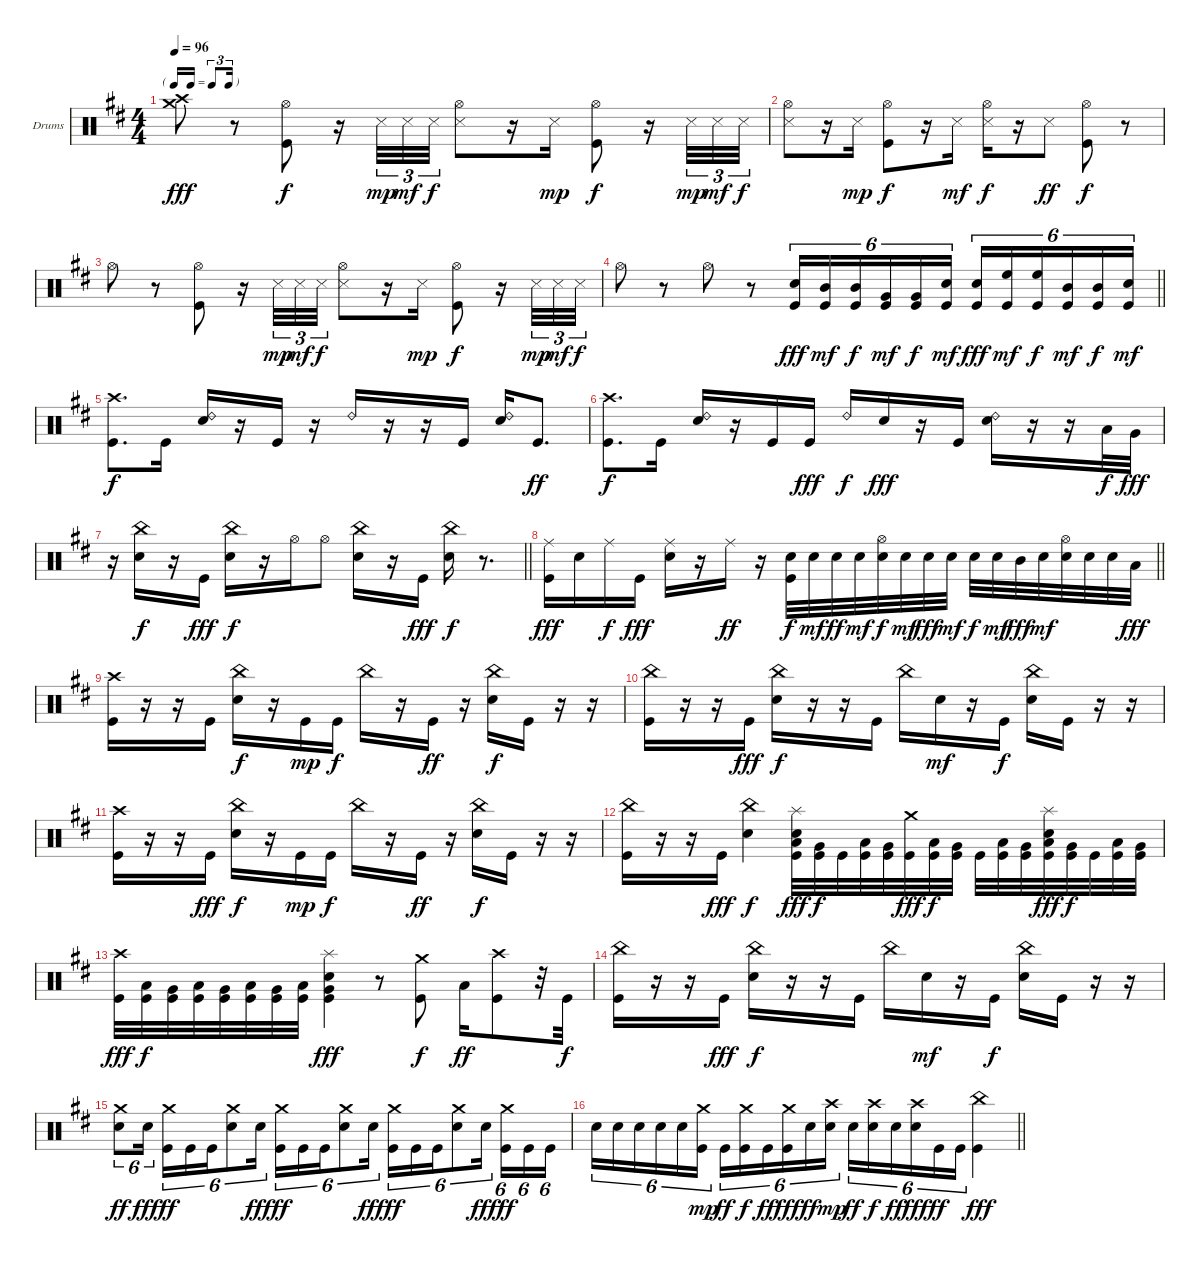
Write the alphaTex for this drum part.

\bracketExtendMode groupsimilarinstruments
\firstSystemTrackNameOrientation horizontal
\otherSystemsTrackNameOrientation horizontal
\track ("Drumkit" "Drums") {instrument percussion}
\staff {score}
\articulation defaults
\ts (4 4)
\tf triplet16th
\tempo 96
\clef neutral
\ks d
("Crash medium (hit)" "Crash high (hit)").8{dy fff} r.8 ("Hi-Hat (open)" "Kick (hit)").8{dy f} r.16 "Snare (side stick) 3".32{tu (3 2) dy mp} "Snare (side stick) 3".32{tu (3 2) dy mf} "Snare (side stick) 3".32{tu (3 2) dy f} ("Hi-Hat (open)" "Snare (side stick) 3").8 r.16 "Snare (side stick) 3".16{dy mp} ("Hi-Hat (open)" "Kick (hit)").8{dy f} r.16 "Snare (side stick) 3".32{tu (3 2) dy mp} "Snare (side stick) 3".32{tu (3 2) dy mf} "Snare (side stick) 3".32{tu (3 2) dy f} |
("Hi-Hat (open)" "Snare (side stick) 3").8 r.16 "Snare (side stick) 3".16{dy mp} ("Hi-Hat (open)" "Kick (hit)").8{dy f} r.16 "Snare (side stick) 3".16{dy mf} ("Hi-Hat (open)" "Snare (side stick) 3").16{dy f} r.16 "Snare (side stick) 3".8{dy ff} ("Hi-Hat (open)" "Kick (hit)").8{dy f} r.8 |
"Hi-Hat (open)".8 r.8 ("Hi-Hat (open)" "Kick (hit)").8 r.16 "Snare (side stick) 3".32{tu (3 2) dy mp} "Snare (side stick) 3".32{tu (3 2) dy mf} "Snare (side stick) 3".32{tu (3 2) dy f} ("Hi-Hat (open)" "Snare (side stick) 3").8 r.16 "Snare (side stick) 3".16{dy mp} ("Hi-Hat (open)" "Kick (hit)").8{dy f} r.16 "Snare (side stick) 3".32{tu (3 2) dy mp} "Snare (side stick) 3".32{tu (3 2) dy mf} "Snare (side stick) 3".32{tu (3 2) dy f} |
\barLineRight lightlight "Hi-Hat (open)".8
r.8 "Hi-Hat (open)".8 r.8 ("Snare (hit) 2" "Kick (hit)").16{tu (6 4) dy fff} ("Mid Tom (hit)" "Kick (hit)").16{tu (6 4) dy mf} ("Mid Tom (hit)" "Kick (hit)").16{tu (6 4) dy f} ("Very Low Tom (hit)" "Kick (hit)").16{tu (6 4) dy mf} ("Very Low Tom (hit)" "Kick (hit)").16{tu (6 4) dy f} ("Snare (hit) 2" "Kick (hit)").16{tu (6 4) dy mf} ("Snare (hit) 2" "Kick (hit)").16{tu (6 4) dy fff} ("High Floor Tom (hit)" "Kick (hit)").16{tu (6 4) dy mf} ("High Floor Tom (hit)" "Kick (hit)").16{tu (6 4) dy f} ("Mid Tom (hit)" "Kick (hit)").16{tu (6 4) dy mf} ("Mid Tom (hit)" "Kick (hit)").16{tu (6 4) dy f} ("Snare (hit) 2" "Kick (hit)").16{tu (6 4) dy mf} |
("Crash high (hit)" "Kick (hit)").8{d dy f} "Kick (hit)".16 ("Ride (bell) 2" "Snare (hit) 2").16 r.16 "Kick (hit)".16 r.16 "Ride (bell) 2".16 r.16 r.16 "Kick (hit)".16 ("Ride (bell) 2" "Snare (hit) 2").16 "Kick (hit)".8{d dy ff} |
("Crash high (hit)" "Kick (hit)").8{d dy f} "Kick (hit)".16 ("Ride (bell) 2" "Snare (hit) 2").16 r.16 "Kick (hit)".16 "Kick (hit)".16{dy fff} "Ride (bell) 2".16{dy f} "Snare (hit) 2".16{dy fff} r.16 "Kick (hit)".16 ("Ride (bell) 2" "Snare (hit) 2").16 r.16 r.16 "Low Tom (hit)".32{dy f} "Very Low Tom (hit)".32{dy fff} |
\barLineRight lightlight
r.16 ("China (hit)" "Snare (hit) 2").16{dy f} r.16 "Kick (hit)".16{dy fff} ("China (hit)" "Snare (hit) 2").16{dy f} r.16 "Hi-Hat (open)".16 "Hi-Hat (open)".8 ("China (hit)" "Snare (hit) 2").16 r.16 "Kick (hit)".16{dy fff} ("China (hit)" "Snare (hit) 2").16{dy f} r.8{d} |
\section ("" "")
\barLineRight lightlight
("Ride (middle)" "Kick (hit)").16{dy fff} "Snare (hit) 2".16 "Ride (middle)".16{dy f} "Kick (hit)".16{dy fff} ("Ride (middle)" "Snare (hit) 2").16 r.16 "Ride (middle)".16{dy ff} r.16 ("Snare (hit) 2" "Kick (hit)").32{dy f} "Snare (hit) 2".32{dy mf} "Snare (hit) 2".32{dy ff} "Snare (hit) 2".32{dy mf} ("Hi-Hat (open)" "Snare (hit) 2").32{dy f} "Snare (hit) 2".32{dy mf} "Snare (hit) 2".32{dy fff} "Snare (hit) 2".32{dy mf} "Snare (hit) 2".32{dy f} "Snare (hit) 2".32{dy mf} "Mid Tom (hit)".32{dy fff} "Snare (hit) 2".32{dy mf} ("Hi-Hat (open)" "Snare (hit) 2").32 "Snare (hit) 2".32 "Snare (hit) 2".32 "Low Tom (hit)".32{dy fff} |
("Crash high (hit)" "Kick (hit)").16 r.16 r.16 "Kick (hit)".16 ("China (hit)" "Snare (hit) 2").16{dy f} r.16 "Kick (hit)".16{dy mp} "Kick (hit)".16{dy f} "China (hit)".16 r.16 "Kick (hit)".16{dy ff} r.16 ("China (hit)" "Snare (hit) 2").16{dy f} "Kick (hit)".16 r.16 r.16 |
("China (hit)" "Kick (hit)").16 r.16 r.16 "Kick (hit)".16{dy fff} ("China (hit)" "Snare (hit) 2").16{dy f} r.16 r.16 "Kick (hit)".16 "China (hit)".16 "Snare (hit) 2".16{dy mf} r.16 "Kick (hit)".16{dy f} ("China (hit)" "Snare (hit) 2").16 "Kick (hit)".16 r.16 r.16 |
("Crash high (hit)" "Kick (hit)").16 r.16 r.16 "Kick (hit)".16{dy fff} ("China (hit)" "Snare (hit) 2").16{dy f} r.16 "Kick (hit)".16{dy mp} "Kick (hit)".16{dy f} "China (hit)".16 r.16 "Kick (hit)".16{dy ff} r.16 ("China (hit)" "Snare (hit) 2").16{dy f} "Kick (hit)".16 r.16 r.16 |
("China (hit)" "Kick (hit)").16 r.16 r.16 "Kick (hit)".16{dy fff} ("China (hit)" "Snare (hit) 2").4{dy f} ("Splash (hit)" "Snare (hit) 2" "Low Tom (hit)" "Kick (hit)").32{dy fff} ("Very Low Tom (hit)" "Kick (hit)").32{dy f} "Kick (hit)".32 ("Low Tom (hit)" "Kick (hit)").32 ("Very Low Tom (hit)" "Kick (hit)").32 ("Crash medium (hit)" "Kick (hit)").32{dy fff} ("Low Tom (hit)" "Kick (hit)").32{dy f} ("Very Low Tom (hit)" "Kick (hit)").32 "Kick (hit)".32 ("Low Tom (hit)" "Kick (hit)").32 ("Very Low Tom (hit)" "Kick (hit)").32 ("Splash (hit)" "Snare (hit) 2" "Low Tom (hit)" "Kick (hit)").32{dy fff} ("Very Low Tom (hit)" "Kick (hit)").32{dy f} "Kick (hit)".32 ("Low Tom (hit)" "Kick (hit)").32 ("Very Low Tom (hit)" "Kick (hit)").32 |
("Crash high (hit)" "Kick (hit)").32{dy fff} ("Low Tom (hit)" "Kick (hit)").32{dy f} ("Very Low Tom (hit)" "Kick (hit)").32 ("Low Tom (hit)" "Kick (hit)").32 ("Very Low Tom (hit)" "Kick (hit)").32 ("Low Tom (hit)" "Kick (hit)").32 ("Very Low Tom (hit)" "Kick (hit)").32 ("Low Tom (hit)" "Kick (hit)").32 ("Splash (hit)" "Snare (hit) 2" "Very Low Tom (hit)" "Kick (hit)").4{dy fff} r.8 ("Crash medium (hit)" "Kick (hit)").8{dy f} "Low Tom (hit)".16{dy ff} ("Crash high (hit)" "Kick (hit)").8 r.32 "Kick (hit)".32{dy f} |
("China (hit)" "Kick (hit)").16 r.16 r.16 "Kick (hit)".16{dy fff} ("China (hit)" "Snare (hit) 2").16{dy f} r.16 r.16 "Kick (hit)".16 "China (hit)".16 "Snare (hit) 2".16{dy mf} r.16 "Kick (hit)".16{dy f} ("China (hit)" "Snare (hit) 2").16 "Kick (hit)".16 r.16 r.16 |
("Crash medium (hit)" "Snare (hit) 2").8{tu (6 4) dy ff} "Snare (hit) 2".16{tu (6 4) dy fff} ("Crash medium (hit)" "Kick (hit)").16{tu (6 4) dy ff} "Kick (hit)".16{tu (6 4)} "Kick (hit)".16{tu (6 4)} ("Crash medium (hit)" "Snare (hit) 2").8{tu (6 4)} "Snare (hit) 2".16{tu (6 4) dy fff} ("Crash medium (hit)" "Kick (hit)").16{tu (6 4) dy ff} "Kick (hit)".16{tu (6 4)} "Kick (hit)".16{tu (6 4)} ("Crash medium (hit)" "Snare (hit) 2").8{tu (6 4)} "Snare (hit) 2".16{tu (6 4) dy fff} ("Crash medium (hit)" "Kick (hit)").16{tu (6 4) dy ff} "Kick (hit)".16{tu (6 4)} "Kick (hit)".16{tu (6 4)} ("Crash medium (hit)" "Snare (hit) 2").8{tu (6 4)} "Snare (hit) 2".16{tu (6 4) dy fff} ("Crash medium (hit)" "Kick (hit)").16{tu (6 4) dy ff} "Kick (hit)".16{tu (6 4)} "Kick (hit)".16{tu (6 4)} |
\barLineRight lightlight "Snare (hit) 2".16{tu (6 4)} "Snare (hit) 2".16{tu (6 4)} "Snare (hit) 2".16{tu (6 4)} "Snare (hit) 2".16{tu (6 4)} "Snare (hit) 2".16{tu (6 4)}
("Crash medium (hit)" "Kick (hit)").16{tu (6 4) dy mp} "Kick (hit)".16{tu (6 4) dy ff} ("Crash medium (hit)" "Kick (hit)").16{tu (6 4) dy f} "Kick (hit)".16{tu (6 4) dy ff} ("Crash medium (hit)" "Kick (hit)").16{tu (6 4) dy fff} "Snare (hit) 2".16{tu (6 4) dy ff} ("Crash high (hit)" "Snare (hit) 2").16{tu (6 4) dy mp} "Snare (hit) 2".16{tu (6 4) dy ff} ("Crash high (hit)" "Snare (hit) 2").16{tu (6 4) dy f} "Snare (hit) 2".16{tu (6 4) dy ff} ("Crash high (hit)" "Snare (hit) 2").16{tu (6 4) dy fff} "Kick (hit)".16{tu (6 4) dy ff} "Kick (hit)".16{tu (6 4)} ("China (hit)" "Kick (hit)").4{dy fff}
